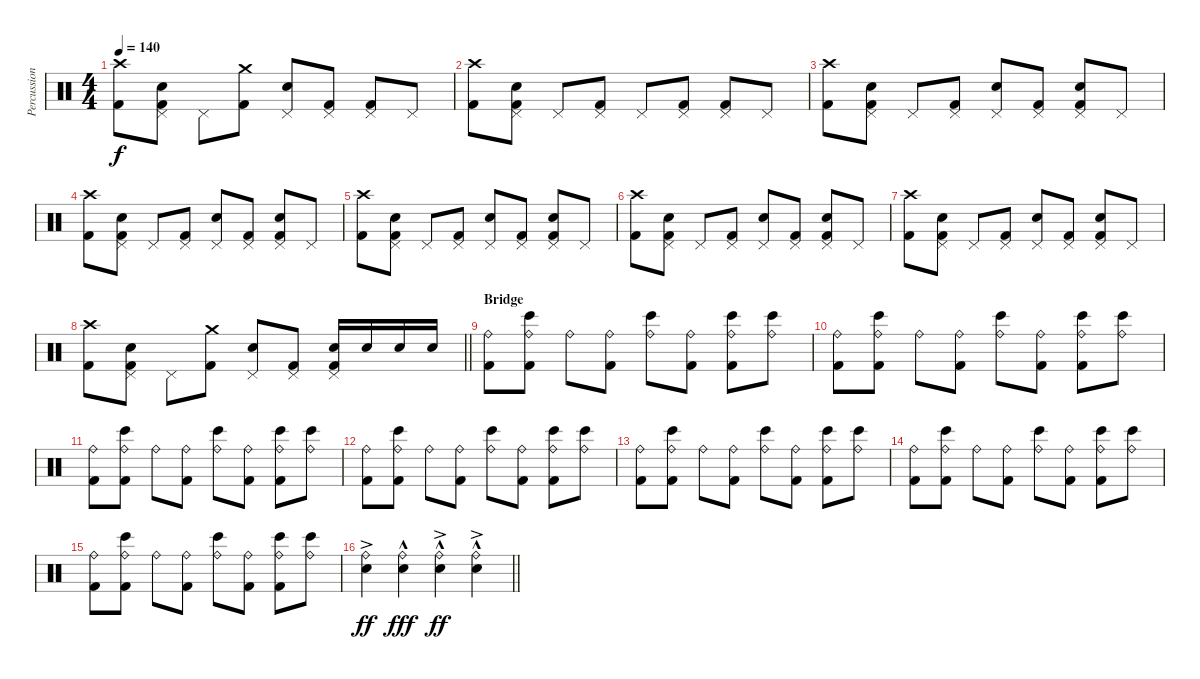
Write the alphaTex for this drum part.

\track ("Percussion" "Percussion") {instrument percussion}
\staff {score}
\articulation defaults
\ts (4 4)
\tempo 140
\clef neutral
\ks c
("Crash high (hit)" "Kick (hit) 2").8{dy f} ("Pedal Hi-Hat (hit)" "Electric Snare (hit)" "Kick (hit) 2").8 "Pedal Hi-Hat (hit)".8 ("Crash medium (hit)" "Kick (hit) 2").8 ("Pedal Hi-Hat (hit)" "Electric Snare (hit)").8 ("Pedal Hi-Hat (hit)" "Kick (hit) 2").8 ("Pedal Hi-Hat (hit)" "Kick (hit) 2").8 "Pedal Hi-Hat (hit)".8 |
("Crash high (hit)" "Kick (hit) 2").8 ("Pedal Hi-Hat (hit)" "Electric Snare (hit)" "Kick (hit) 2").8 "Pedal Hi-Hat (hit)".8 ("Pedal Hi-Hat (hit)" "Kick (hit) 2").8 "Pedal Hi-Hat (hit)".8 ("Pedal Hi-Hat (hit)" "Kick (hit) 2").8 ("Pedal Hi-Hat (hit)" "Kick (hit) 2").8 "Pedal Hi-Hat (hit)".8 |
("Crash high (hit)" "Kick (hit) 2").8 ("Pedal Hi-Hat (hit)" "Electric Snare (hit)" "Kick (hit) 2").8 "Pedal Hi-Hat (hit)".8 ("Pedal Hi-Hat (hit)" "Kick (hit) 2").8 ("Pedal Hi-Hat (hit)" "Electric Snare (hit)").8 ("Pedal Hi-Hat (hit)" "Kick (hit) 2").8 ("Pedal Hi-Hat (hit)" "Electric Snare (hit)" "Kick (hit) 2").8 "Pedal Hi-Hat (hit)".8 |
("Crash high (hit)" "Kick (hit) 2").8 ("Pedal Hi-Hat (hit)" "Electric Snare (hit)" "Kick (hit) 2").8 "Pedal Hi-Hat (hit)".8 ("Pedal Hi-Hat (hit)" "Kick (hit) 2").8 ("Pedal Hi-Hat (hit)" "Electric Snare (hit)").8 ("Pedal Hi-Hat (hit)" "Kick (hit) 2").8 ("Pedal Hi-Hat (hit)" "Electric Snare (hit)" "Kick (hit) 2").8 "Pedal Hi-Hat (hit)".8 |
("Crash high (hit)" "Kick (hit) 2").8 ("Pedal Hi-Hat (hit)" "Electric Snare (hit)" "Kick (hit) 2").8 "Pedal Hi-Hat (hit)".8 ("Pedal Hi-Hat (hit)" "Kick (hit) 2").8 ("Pedal Hi-Hat (hit)" "Electric Snare (hit)").8 ("Pedal Hi-Hat (hit)" "Kick (hit) 2").8 ("Pedal Hi-Hat (hit)" "Electric Snare (hit)" "Kick (hit) 2").8 "Pedal Hi-Hat (hit)".8 |
("Crash high (hit)" "Kick (hit) 2").8 ("Pedal Hi-Hat (hit)" "Electric Snare (hit)" "Kick (hit) 2").8 "Pedal Hi-Hat (hit)".8 ("Pedal Hi-Hat (hit)" "Kick (hit) 2").8 ("Pedal Hi-Hat (hit)" "Electric Snare (hit)").8 ("Pedal Hi-Hat (hit)" "Kick (hit) 2").8 ("Pedal Hi-Hat (hit)" "Electric Snare (hit)" "Kick (hit) 2").8 "Pedal Hi-Hat (hit)".8 |
("Crash high (hit)" "Kick (hit) 2").8 ("Pedal Hi-Hat (hit)" "Electric Snare (hit)" "Kick (hit) 2").8 "Pedal Hi-Hat (hit)".8 ("Pedal Hi-Hat (hit)" "Kick (hit) 2").8 ("Pedal Hi-Hat (hit)" "Electric Snare (hit)").8 ("Pedal Hi-Hat (hit)" "Kick (hit) 2").8 ("Pedal Hi-Hat (hit)" "Electric Snare (hit)" "Kick (hit) 2").8 "Pedal Hi-Hat (hit)".8 |
\barLineRight lightlight
("Crash high (hit)" "Kick (hit) 2").8 ("Pedal Hi-Hat (hit)" "Electric Snare (hit)" "Kick (hit) 2").8 "Pedal Hi-Hat (hit)".8 ("Crash medium (hit)" "Kick (hit) 2").8 ("Pedal Hi-Hat (hit)" "Electric Snare (hit)").8 ("Pedal Hi-Hat (hit)" "Kick (hit) 2").8 ("Pedal Hi-Hat (hit)" "Electric Snare (hit)" "Kick (hit) 2").16 "Electric Snare (hit)".16 "Electric Snare (hit)".16 "Electric Snare (hit)".16 |
\section ("" "Bridge")
("Ride (bell)" "Kick (hit) 2").8 ("Ride (bell)" "Bongo High (hit)" "Kick (hit) 2").8 "Ride (bell)".8 ("Ride (bell)" "Kick (hit) 2").8 ("Ride (bell)" "Bongo High (hit)").8 ("Ride (bell)" "Kick (hit) 2").8 ("Ride (bell)" "Bongo High (hit)" "Kick (hit) 2").8 ("Ride (bell)" "Bongo High (hit)").8 |
("Ride (bell)" "Kick (hit) 2").8 ("Ride (bell)" "Bongo High (hit)" "Kick (hit) 2").8 "Ride (bell)".8 ("Ride (bell)" "Kick (hit) 2").8 ("Ride (bell)" "Bongo High (hit)").8 ("Ride (bell)" "Kick (hit) 2").8 ("Ride (bell)" "Bongo High (hit)" "Kick (hit) 2").8 ("Ride (bell)" "Bongo High (hit)").8 |
("Ride (bell)" "Kick (hit) 2").8 ("Ride (bell)" "Bongo High (hit)" "Kick (hit) 2").8 "Ride (bell)".8 ("Ride (bell)" "Kick (hit) 2").8 ("Ride (bell)" "Bongo High (hit)").8 ("Ride (bell)" "Kick (hit) 2").8 ("Ride (bell)" "Bongo High (hit)" "Kick (hit) 2").8 ("Ride (bell)" "Bongo High (hit)").8 |
("Ride (bell)" "Kick (hit) 2").8 ("Ride (bell)" "Bongo High (hit)" "Kick (hit) 2").8 "Ride (bell)".8 ("Ride (bell)" "Kick (hit) 2").8 ("Ride (bell)" "Bongo High (hit)").8 ("Ride (bell)" "Kick (hit) 2").8 ("Ride (bell)" "Bongo High (hit)" "Kick (hit) 2").8 ("Ride (bell)" "Bongo High (hit)").8 |
("Ride (bell)" "Kick (hit) 2").8 ("Ride (bell)" "Bongo High (hit)" "Kick (hit) 2").8 "Ride (bell)".8 ("Ride (bell)" "Kick (hit) 2").8 ("Ride (bell)" "Bongo High (hit)").8 ("Ride (bell)" "Kick (hit) 2").8 ("Ride (bell)" "Bongo High (hit)" "Kick (hit) 2").8 ("Ride (bell)" "Bongo High (hit)").8 |
("Ride (bell)" "Kick (hit) 2").8 ("Ride (bell)" "Bongo High (hit)" "Kick (hit) 2").8 "Ride (bell)".8 ("Ride (bell)" "Kick (hit) 2").8 ("Ride (bell)" "Bongo High (hit)").8 ("Ride (bell)" "Kick (hit) 2").8 ("Ride (bell)" "Bongo High (hit)" "Kick (hit) 2").8 ("Ride (bell)" "Bongo High (hit)").8 |
("Ride (bell)" "Kick (hit) 2").8 ("Ride (bell)" "Bongo High (hit)" "Kick (hit) 2").8 "Ride (bell)".8 ("Ride (bell)" "Kick (hit) 2").8 ("Ride (bell)" "Bongo High (hit)").8 ("Ride (bell)" "Kick (hit) 2").8 ("Ride (bell)" "Bongo High (hit)" "Kick (hit) 2").8 ("Ride (bell)" "Bongo High (hit)").8 |
\barLineRight lightlight
("Ride (bell)"{ac} "Electric Snare (hit)").4{dy ff} ("Ride (bell)"{hac} "Electric Snare (hit)").4{dy fff} ("Ride (bell)"{hac} "Electric Snare (hit)"{ac}).4{dy ff} ("Ride (bell)"{hac} "Electric Snare (hit)"{ac}).4
